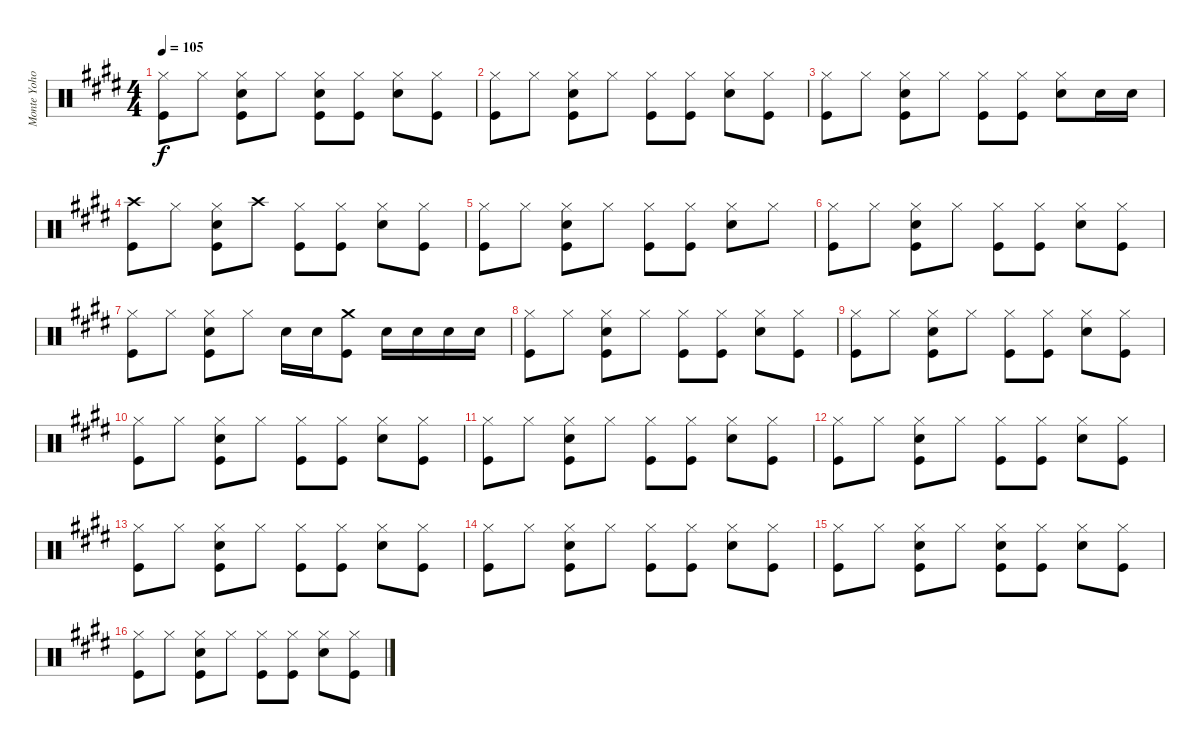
\track ("Monte Yoho" "Monte Yoho") {instrument percussion}
\staff {score}
\articulation defaults
\ts (4 4)
\tempo 105
\clef neutral
\ks e
("Hi-Hat (closed)" "Kick (hit)").8{dy f} "Hi-Hat (closed)".8 ("Hi-Hat (closed)" "Snare (hit) 2" "Kick (hit)").8 "Hi-Hat (closed)".8 ("Hi-Hat (closed)" "Snare (hit) 2" "Kick (hit)").8 ("Hi-Hat (closed)" "Kick (hit)").8 ("Hi-Hat (closed)" "Snare (hit) 2").8 ("Hi-Hat (closed)" "Kick (hit)").8 |
("Hi-Hat (closed)" "Kick (hit)").8 "Hi-Hat (closed)".8 ("Hi-Hat (closed)" "Snare (hit) 2" "Kick (hit)").8 "Hi-Hat (closed)".8 ("Hi-Hat (closed)" "Kick (hit)").8 ("Hi-Hat (closed)" "Kick (hit)").8 ("Hi-Hat (closed)" "Snare (hit) 2").8 ("Hi-Hat (closed)" "Kick (hit)").8 |
("Hi-Hat (closed)" "Kick (hit)").8 "Hi-Hat (closed)".8 ("Hi-Hat (closed)" "Snare (hit) 2" "Kick (hit)").8 "Hi-Hat (closed)".8 ("Hi-Hat (closed)" "Kick (hit)").8 ("Hi-Hat (closed)" "Kick (hit)").8 ("Hi-Hat (closed)" "Snare (hit) 2").8 "Snare (hit) 2".16 "Snare (hit) 2".16 |
("Crash high (hit)" "Kick (hit)").8 "Hi-Hat (closed)".8 ("Hi-Hat (closed)" "Snare (hit) 2" "Kick (hit)").8 "Crash high (hit)".8 ("Hi-Hat (closed)" "Kick (hit)").8 ("Hi-Hat (closed)" "Kick (hit)").8 ("Hi-Hat (closed)" "Snare (hit) 2").8 ("Hi-Hat (closed)" "Kick (hit)").8 |
("Hi-Hat (closed)" "Kick (hit)").8 "Hi-Hat (closed)".8 ("Hi-Hat (closed)" "Snare (hit) 2" "Kick (hit)").8 "Hi-Hat (closed)".8 ("Hi-Hat (closed)" "Kick (hit)").8 ("Hi-Hat (closed)" "Kick (hit)").8 ("Hi-Hat (closed)" "Snare (hit) 2").8 "Hi-Hat (closed)".8 |
("Hi-Hat (closed)" "Kick (hit)").8 "Hi-Hat (closed)".8 ("Hi-Hat (closed)" "Snare (hit) 2" "Kick (hit)").8 "Hi-Hat (closed)".8 ("Hi-Hat (closed)" "Kick (hit)").8 ("Hi-Hat (closed)" "Kick (hit)").8 ("Hi-Hat (closed)" "Snare (hit) 2").8 ("Hi-Hat (closed)" "Kick (hit)").8 |
("Hi-Hat (closed)" "Kick (hit)").8 "Hi-Hat (closed)".8 ("Hi-Hat (closed)" "Snare (hit) 2" "Kick (hit)").8 "Hi-Hat (closed)".8 "Snare (hit) 2".16 "Snare (hit) 2".16 ("Crash medium (hit)" "Kick (hit)").8 "Snare (hit) 2".16 "Snare (hit) 2".16 "Snare (hit) 2".16 "Snare (hit) 2".16 |
("Hi-Hat (closed)" "Kick (hit)").8 "Hi-Hat (closed)".8 ("Hi-Hat (closed)" "Snare (hit) 2" "Kick (hit)").8 "Hi-Hat (closed)".8 ("Hi-Hat (closed)" "Kick (hit)").8 ("Hi-Hat (closed)" "Kick (hit)").8 ("Hi-Hat (closed)" "Snare (hit) 2").8 ("Hi-Hat (closed)" "Kick (hit)").8 |
("Hi-Hat (closed)" "Kick (hit)").8 "Hi-Hat (closed)".8 ("Hi-Hat (closed)" "Snare (hit) 2" "Kick (hit)").8 "Hi-Hat (closed)".8 ("Hi-Hat (closed)" "Kick (hit)").8 ("Hi-Hat (closed)" "Kick (hit)").8 ("Hi-Hat (closed)" "Snare (hit) 2").8 ("Hi-Hat (closed)" "Kick (hit)").8 |
("Hi-Hat (closed)" "Kick (hit)").8 "Hi-Hat (closed)".8 ("Hi-Hat (closed)" "Snare (hit) 2" "Kick (hit)").8 "Hi-Hat (closed)".8 ("Hi-Hat (closed)" "Kick (hit)").8 ("Hi-Hat (closed)" "Kick (hit)").8 ("Hi-Hat (closed)" "Snare (hit) 2").8 ("Hi-Hat (closed)" "Kick (hit)").8 |
("Hi-Hat (closed)" "Kick (hit)").8 "Hi-Hat (closed)".8 ("Hi-Hat (closed)" "Snare (hit) 2" "Kick (hit)").8 "Hi-Hat (closed)".8 ("Hi-Hat (closed)" "Kick (hit)").8 ("Hi-Hat (closed)" "Kick (hit)").8 ("Hi-Hat (closed)" "Snare (hit) 2").8 ("Hi-Hat (closed)" "Kick (hit)").8 |
("Hi-Hat (closed)" "Kick (hit)").8 "Hi-Hat (closed)".8 ("Hi-Hat (closed)" "Snare (hit) 2" "Kick (hit)").8 "Hi-Hat (closed)".8 ("Hi-Hat (closed)" "Kick (hit)").8 ("Hi-Hat (closed)" "Kick (hit)").8 ("Hi-Hat (closed)" "Snare (hit) 2").8 ("Hi-Hat (closed)" "Kick (hit)").8 |
("Hi-Hat (closed)" "Kick (hit)").8 "Hi-Hat (closed)".8 ("Hi-Hat (closed)" "Snare (hit) 2" "Kick (hit)").8 "Hi-Hat (closed)".8 ("Hi-Hat (closed)" "Kick (hit)").8 ("Hi-Hat (closed)" "Kick (hit)").8 ("Hi-Hat (closed)" "Snare (hit) 2").8 ("Hi-Hat (closed)" "Kick (hit)").8 |
("Hi-Hat (closed)" "Kick (hit)").8 "Hi-Hat (closed)".8 ("Hi-Hat (closed)" "Snare (hit) 2" "Kick (hit)").8 "Hi-Hat (closed)".8 ("Hi-Hat (closed)" "Kick (hit)").8 ("Hi-Hat (closed)" "Kick (hit)").8 ("Hi-Hat (closed)" "Snare (hit) 2").8 ("Hi-Hat (closed)" "Kick (hit)").8 |
("Hi-Hat (closed)" "Kick (hit)").8 "Hi-Hat (closed)".8 ("Hi-Hat (closed)" "Snare (hit) 2" "Kick (hit)").8 "Hi-Hat (closed)".8 ("Hi-Hat (closed)" "Snare (hit) 2" "Kick (hit)").8 ("Hi-Hat (closed)" "Kick (hit)").8 ("Hi-Hat (closed)" "Snare (hit) 2").8 ("Hi-Hat (closed)" "Kick (hit)").8 |
("Hi-Hat (closed)" "Kick (hit)").8 "Hi-Hat (closed)".8 ("Hi-Hat (closed)" "Snare (hit) 2" "Kick (hit)").8 "Hi-Hat (closed)".8 ("Hi-Hat (closed)" "Kick (hit)").8 ("Hi-Hat (closed)" "Kick (hit)").8 ("Hi-Hat (closed)" "Snare (hit) 2").8 ("Hi-Hat (closed)" "Kick (hit)").8
